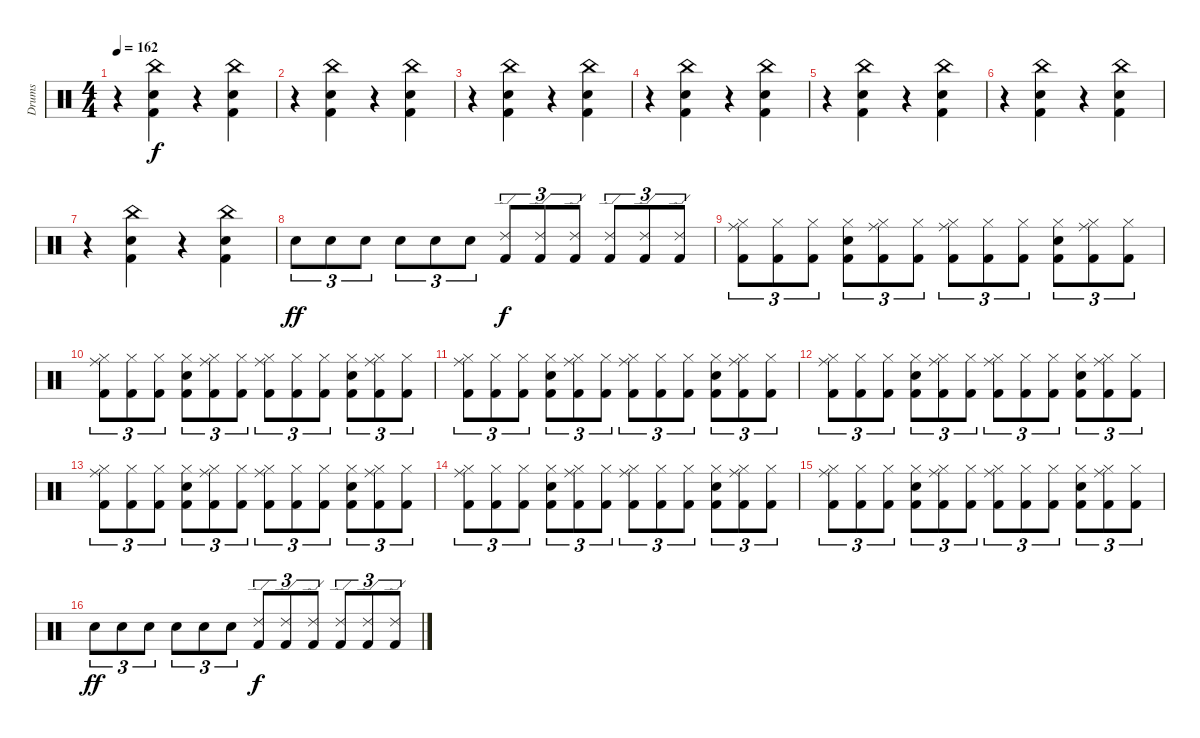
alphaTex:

\track ("Drums" "Drums") {instrument percussion}
\staff {score}
\articulation defaults
\ts (4 4)
\tempo 162
\clef neutral
\ks c
r.4{dy f} ("Kick (hit) 2" "Electric Snare (hit)" "China (hit)").4 r.4 ("Kick (hit) 2" "Electric Snare (hit)" "China (hit)").4 |
r.4 ("Kick (hit) 2" "Electric Snare (hit)" "China (hit)").4 r.4 ("Kick (hit) 2" "Electric Snare (hit)" "China (hit)").4 |
r.4 ("Kick (hit) 2" "Electric Snare (hit)" "China (hit)").4 r.4 ("Kick (hit) 2" "Electric Snare (hit)" "China (hit)").4 |
r.4 ("Kick (hit) 2" "Electric Snare (hit)" "China (hit)").4 r.4 ("Kick (hit) 2" "Electric Snare (hit)" "China (hit)").4 |
r.4 ("Kick (hit) 2" "Electric Snare (hit)" "China (hit)").4 r.4 ("Kick (hit) 2" "Electric Snare (hit)" "China (hit)").4 |
r.4 ("Kick (hit) 2" "Electric Snare (hit)" "China (hit)").4 r.4 ("Kick (hit) 2" "Electric Snare (hit)" "China (hit)").4 |
r.4 ("Kick (hit) 2" "Electric Snare (hit)" "China (hit)").4 r.4 ("Kick (hit) 2" "Electric Snare (hit)" "China (hit)").4 |
"Electric Snare (hit)".8{tu (3 2) dy ff} "Electric Snare (hit)".8{tu (3 2)} "Electric Snare (hit)".8{tu (3 2)} "Electric Snare (hit)".8{tu (3 2)} "Electric Snare (hit)".8{tu (3 2)} "Electric Snare (hit)".8{tu (3 2)} ("Kick (hit) 2" "Ride (edge) 2").8{tu (3 2) dy f} ("Kick (hit) 2" "Ride (edge) 2").8{tu (3 2)} ("Kick (hit) 2" "Ride (edge) 2").8{tu (3 2)} ("Kick (hit) 2" "Ride (edge) 2").8{tu (3 2)} ("Kick (hit) 2" "Ride (edge) 2").8{tu (3 2)} ("Kick (hit) 2" "Ride (edge) 2").8{tu (3 2)} |
("Kick (hit) 2" "Ride (middle)" "Hi-Hat (closed)").8{tu (3 2)} ("Kick (hit) 2" "Hi-Hat (closed)").8{tu (3 2)} ("Kick (hit) 2" "Hi-Hat (closed)").8{tu (3 2)} ("Kick (hit) 2" "Snare (hit) 2" "Hi-Hat (closed)").8{tu (3 2)} ("Kick (hit) 2" "Ride (middle)" "Hi-Hat (closed)").8{tu (3 2)} ("Kick (hit) 2" "Hi-Hat (closed)").8{tu (3 2)} ("Kick (hit) 2" "Ride (middle)" "Hi-Hat (closed)").8{tu (3 2)} ("Kick (hit) 2" "Hi-Hat (closed)").8{tu (3 2)} ("Kick (hit) 2" "Hi-Hat (closed)").8{tu (3 2)} ("Kick (hit) 2" "Snare (hit) 2" "Hi-Hat (closed)").8{tu (3 2)} ("Kick (hit) 2" "Ride (middle)" "Hi-Hat (closed)").8{tu (3 2)} ("Kick (hit) 2" "Hi-Hat (closed)").8{tu (3 2)} |
("Kick (hit) 2" "Ride (middle)" "Hi-Hat (closed)").8{tu (3 2)} ("Kick (hit) 2" "Hi-Hat (closed)").8{tu (3 2)} ("Kick (hit) 2" "Hi-Hat (closed)").8{tu (3 2)} ("Kick (hit) 2" "Snare (hit) 2" "Hi-Hat (closed)").8{tu (3 2)} ("Kick (hit) 2" "Ride (middle)" "Hi-Hat (closed)").8{tu (3 2)} ("Kick (hit) 2" "Hi-Hat (closed)").8{tu (3 2)} ("Kick (hit) 2" "Ride (middle)" "Hi-Hat (closed)").8{tu (3 2)} ("Kick (hit) 2" "Hi-Hat (closed)").8{tu (3 2)} ("Kick (hit) 2" "Hi-Hat (closed)").8{tu (3 2)} ("Kick (hit) 2" "Snare (hit) 2" "Hi-Hat (closed)").8{tu (3 2)} ("Kick (hit) 2" "Ride (middle)" "Hi-Hat (closed)").8{tu (3 2)} ("Kick (hit) 2" "Hi-Hat (closed)").8{tu (3 2)} |
("Kick (hit) 2" "Ride (middle)" "Hi-Hat (closed)").8{tu (3 2)} ("Kick (hit) 2" "Hi-Hat (closed)").8{tu (3 2)} ("Kick (hit) 2" "Hi-Hat (closed)").8{tu (3 2)} ("Kick (hit) 2" "Snare (hit) 2" "Hi-Hat (closed)").8{tu (3 2)} ("Kick (hit) 2" "Ride (middle)" "Hi-Hat (closed)").8{tu (3 2)} ("Kick (hit) 2" "Hi-Hat (closed)").8{tu (3 2)} ("Kick (hit) 2" "Ride (middle)" "Hi-Hat (closed)").8{tu (3 2)} ("Kick (hit) 2" "Hi-Hat (closed)").8{tu (3 2)} ("Kick (hit) 2" "Hi-Hat (closed)").8{tu (3 2)} ("Kick (hit) 2" "Snare (hit) 2" "Hi-Hat (closed)").8{tu (3 2)} ("Kick (hit) 2" "Ride (middle)" "Hi-Hat (closed)").8{tu (3 2)} ("Kick (hit) 2" "Hi-Hat (closed)").8{tu (3 2)} |
("Kick (hit) 2" "Ride (middle)" "Hi-Hat (closed)").8{tu (3 2)} ("Kick (hit) 2" "Hi-Hat (closed)").8{tu (3 2)} ("Kick (hit) 2" "Hi-Hat (closed)").8{tu (3 2)} ("Kick (hit) 2" "Snare (hit) 2" "Hi-Hat (closed)").8{tu (3 2)} ("Kick (hit) 2" "Ride (middle)" "Hi-Hat (closed)").8{tu (3 2)} ("Kick (hit) 2" "Hi-Hat (closed)").8{tu (3 2)} ("Kick (hit) 2" "Ride (middle)" "Hi-Hat (closed)").8{tu (3 2)} ("Kick (hit) 2" "Hi-Hat (closed)").8{tu (3 2)} ("Kick (hit) 2" "Hi-Hat (closed)").8{tu (3 2)} ("Kick (hit) 2" "Snare (hit) 2" "Hi-Hat (closed)").8{tu (3 2)} ("Kick (hit) 2" "Ride (middle)" "Hi-Hat (closed)").8{tu (3 2)} ("Kick (hit) 2" "Hi-Hat (closed)").8{tu (3 2)} |
("Kick (hit) 2" "Ride (middle)" "Hi-Hat (closed)").8{tu (3 2)} ("Kick (hit) 2" "Hi-Hat (closed)").8{tu (3 2)} ("Kick (hit) 2" "Hi-Hat (closed)").8{tu (3 2)} ("Kick (hit) 2" "Snare (hit) 2" "Hi-Hat (closed)").8{tu (3 2)} ("Kick (hit) 2" "Ride (middle)" "Hi-Hat (closed)").8{tu (3 2)} ("Kick (hit) 2" "Hi-Hat (closed)").8{tu (3 2)} ("Kick (hit) 2" "Ride (middle)" "Hi-Hat (closed)").8{tu (3 2)} ("Kick (hit) 2" "Hi-Hat (closed)").8{tu (3 2)} ("Kick (hit) 2" "Hi-Hat (closed)").8{tu (3 2)} ("Kick (hit) 2" "Snare (hit) 2" "Hi-Hat (closed)").8{tu (3 2)} ("Kick (hit) 2" "Ride (middle)" "Hi-Hat (closed)").8{tu (3 2)} ("Kick (hit) 2" "Hi-Hat (closed)").8{tu (3 2)} |
("Kick (hit) 2" "Ride (middle)" "Hi-Hat (closed)").8{tu (3 2)} ("Kick (hit) 2" "Hi-Hat (closed)").8{tu (3 2)} ("Kick (hit) 2" "Hi-Hat (closed)").8{tu (3 2)} ("Kick (hit) 2" "Snare (hit) 2" "Hi-Hat (closed)").8{tu (3 2)} ("Kick (hit) 2" "Ride (middle)" "Hi-Hat (closed)").8{tu (3 2)} ("Kick (hit) 2" "Hi-Hat (closed)").8{tu (3 2)} ("Kick (hit) 2" "Ride (middle)" "Hi-Hat (closed)").8{tu (3 2)} ("Kick (hit) 2" "Hi-Hat (closed)").8{tu (3 2)} ("Kick (hit) 2" "Hi-Hat (closed)").8{tu (3 2)} ("Kick (hit) 2" "Snare (hit) 2" "Hi-Hat (closed)").8{tu (3 2)} ("Kick (hit) 2" "Ride (middle)" "Hi-Hat (closed)").8{tu (3 2)} ("Kick (hit) 2" "Hi-Hat (closed)").8{tu (3 2)} |
("Kick (hit) 2" "Ride (middle)" "Hi-Hat (closed)").8{tu (3 2)} ("Kick (hit) 2" "Hi-Hat (closed)").8{tu (3 2)} ("Kick (hit) 2" "Hi-Hat (closed)").8{tu (3 2)} ("Kick (hit) 2" "Snare (hit) 2" "Hi-Hat (closed)").8{tu (3 2)} ("Kick (hit) 2" "Ride (middle)" "Hi-Hat (closed)").8{tu (3 2)} ("Kick (hit) 2" "Hi-Hat (closed)").8{tu (3 2)} ("Kick (hit) 2" "Ride (middle)" "Hi-Hat (closed)").8{tu (3 2)} ("Kick (hit) 2" "Hi-Hat (closed)").8{tu (3 2)} ("Kick (hit) 2" "Hi-Hat (closed)").8{tu (3 2)} ("Kick (hit) 2" "Snare (hit) 2" "Hi-Hat (closed)").8{tu (3 2)} ("Kick (hit) 2" "Ride (middle)" "Hi-Hat (closed)").8{tu (3 2)} ("Kick (hit) 2" "Hi-Hat (closed)").8{tu (3 2)} |
"Electric Snare (hit)".8{tu (3 2) dy ff} "Electric Snare (hit)".8{tu (3 2)} "Electric Snare (hit)".8{tu (3 2)} "Electric Snare (hit)".8{tu (3 2)} "Electric Snare (hit)".8{tu (3 2)} "Electric Snare (hit)".8{tu (3 2)} ("Kick (hit) 2" "Ride (edge) 2").8{tu (3 2) dy f} ("Kick (hit) 2" "Ride (edge) 2").8{tu (3 2)} ("Kick (hit) 2" "Ride (edge) 2").8{tu (3 2)} ("Kick (hit) 2" "Ride (edge) 2").8{tu (3 2)} ("Kick (hit) 2" "Ride (edge) 2").8{tu (3 2)} ("Kick (hit) 2" "Ride (edge) 2").8{tu (3 2)}
